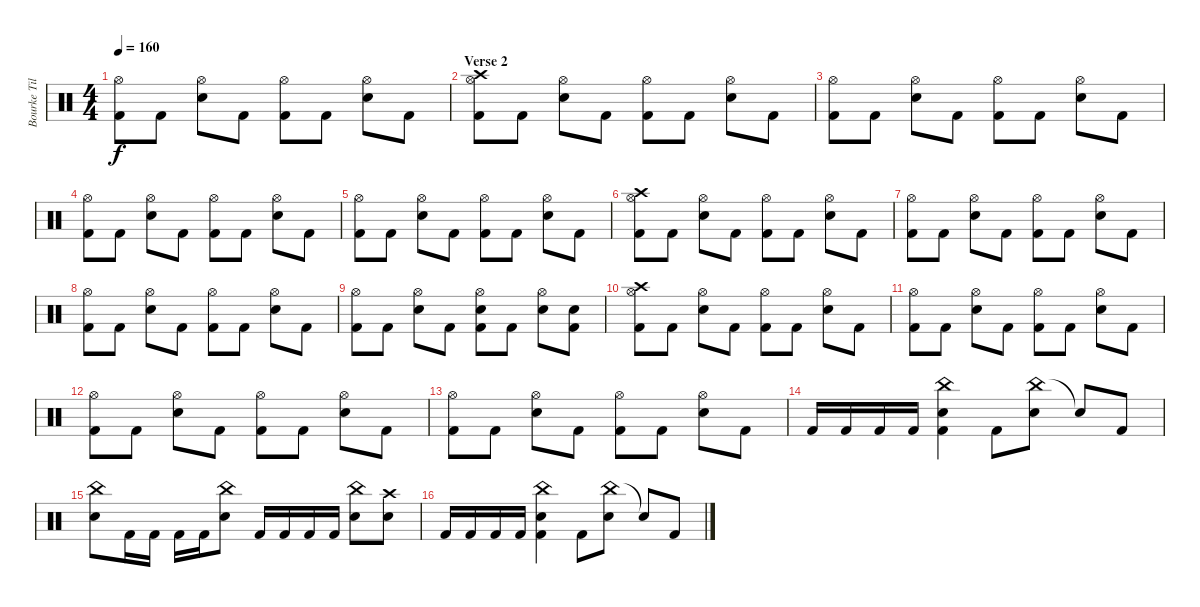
\track ("Bourke Tillman" "Bourke Til") {instrument percussion}
\staff {score}
\articulation defaults
\ts (4 4)
\tempo 160
\clef neutral
\ks c
("Hi-Hat (open)" "Kick (hit) 2").8{dy f} "Kick (hit) 2".8 ("Hi-Hat (open)" "Electric Snare (hit)").8 "Kick (hit) 2".8 ("Hi-Hat (open)" "Kick (hit) 2").8 "Kick (hit) 2".8 ("Hi-Hat (open)" "Electric Snare (hit)").8 "Kick (hit) 2".8 |
\section ("" "Verse 2")
("Crash high (hit)" "Hi-Hat (open)" "Kick (hit) 2").8 "Kick (hit) 2".8 ("Hi-Hat (open)" "Electric Snare (hit)").8 "Kick (hit) 2".8 ("Hi-Hat (open)" "Kick (hit) 2").8 "Kick (hit) 2".8 ("Hi-Hat (open)" "Electric Snare (hit)").8 "Kick (hit) 2".8 |
("Hi-Hat (open)" "Kick (hit) 2").8 "Kick (hit) 2".8 ("Hi-Hat (open)" "Electric Snare (hit)").8 "Kick (hit) 2".8 ("Hi-Hat (open)" "Kick (hit) 2").8 "Kick (hit) 2".8 ("Hi-Hat (open)" "Electric Snare (hit)").8 "Kick (hit) 2".8 |
("Hi-Hat (open)" "Kick (hit) 2").8 "Kick (hit) 2".8 ("Hi-Hat (open)" "Electric Snare (hit)").8 "Kick (hit) 2".8 ("Hi-Hat (open)" "Kick (hit) 2").8 "Kick (hit) 2".8 ("Hi-Hat (open)" "Electric Snare (hit)").8 "Kick (hit) 2".8 |
("Hi-Hat (open)" "Kick (hit) 2").8 "Kick (hit) 2".8 ("Hi-Hat (open)" "Electric Snare (hit)").8 "Kick (hit) 2".8 ("Hi-Hat (open)" "Kick (hit) 2").8 "Kick (hit) 2".8 ("Hi-Hat (open)" "Electric Snare (hit)").8 "Kick (hit) 2".8 |
("Crash high (hit)" "Hi-Hat (open)" "Kick (hit) 2").8 "Kick (hit) 2".8 ("Hi-Hat (open)" "Electric Snare (hit)").8 "Kick (hit) 2".8 ("Hi-Hat (open)" "Kick (hit) 2").8 "Kick (hit) 2".8 ("Hi-Hat (open)" "Electric Snare (hit)").8 "Kick (hit) 2".8 |
("Hi-Hat (open)" "Kick (hit) 2").8 "Kick (hit) 2".8 ("Hi-Hat (open)" "Electric Snare (hit)").8 "Kick (hit) 2".8 ("Hi-Hat (open)" "Kick (hit) 2").8 "Kick (hit) 2".8 ("Hi-Hat (open)" "Electric Snare (hit)").8 "Kick (hit) 2".8 |
("Hi-Hat (open)" "Kick (hit) 2").8 "Kick (hit) 2".8 ("Hi-Hat (open)" "Electric Snare (hit)").8 "Kick (hit) 2".8 ("Hi-Hat (open)" "Kick (hit) 2").8 "Kick (hit) 2".8 ("Hi-Hat (open)" "Electric Snare (hit)").8 "Kick (hit) 2".8 |
("Hi-Hat (open)" "Kick (hit) 2").8 "Kick (hit) 2".8 ("Hi-Hat (open)" "Electric Snare (hit)").8 "Kick (hit) 2".8 ("Hi-Hat (open)" "Electric Snare (hit)" "Kick (hit) 2").8 "Kick (hit) 2".8 ("Hi-Hat (open)" "Electric Snare (hit)").8 ("Electric Snare (hit)" "Kick (hit) 2").8 |
("Crash high (hit)" "Hi-Hat (open)" "Kick (hit) 2").8 "Kick (hit) 2".8 ("Hi-Hat (open)" "Electric Snare (hit)").8 "Kick (hit) 2".8 ("Hi-Hat (open)" "Kick (hit) 2").8 "Kick (hit) 2".8 ("Hi-Hat (open)" "Electric Snare (hit)").8 "Kick (hit) 2".8 |
("Hi-Hat (open)" "Kick (hit) 2").8 "Kick (hit) 2".8 ("Hi-Hat (open)" "Electric Snare (hit)").8 "Kick (hit) 2".8 ("Hi-Hat (open)" "Kick (hit) 2").8 "Kick (hit) 2".8 ("Hi-Hat (open)" "Electric Snare (hit)").8 "Kick (hit) 2".8 |
("Hi-Hat (open)" "Kick (hit) 2").8 "Kick (hit) 2".8 ("Hi-Hat (open)" "Electric Snare (hit)").8 "Kick (hit) 2".8 ("Hi-Hat (open)" "Kick (hit) 2").8 "Kick (hit) 2".8 ("Hi-Hat (open)" "Electric Snare (hit)").8 "Kick (hit) 2".8 |
("Hi-Hat (open)" "Kick (hit) 2").8 "Kick (hit) 2".8 ("Hi-Hat (open)" "Electric Snare (hit)").8 "Kick (hit) 2".8 ("Hi-Hat (open)" "Kick (hit) 2").8 "Kick (hit) 2".8 ("Hi-Hat (open)" "Electric Snare (hit)").8 "Kick (hit) 2".8 |
"Kick (hit) 2".16 "Kick (hit) 2".16 "Kick (hit) 2".16 "Kick (hit) 2".16 ("China (hit)" "Electric Snare (hit)" "Kick (hit) 2").4 "Kick (hit) 2".8 ("China (hit)" "Electric Snare (hit)").8 "Electric Snare (hit)"{t}.8 "Kick (hit) 2".8 |
("China (hit)" "Electric Snare (hit)").8 "Kick (hit) 2".16 "Kick (hit) 2".16 "Kick (hit) 2".16 "Kick (hit) 2".16 ("China (hit)" "Electric Snare (hit)").8 "Kick (hit) 2".16 "Kick (hit) 2".16 "Kick (hit) 2".16 "Kick (hit) 2".16 ("China (hit)" "Electric Snare (hit)").8 ("Crash high (hit)" "Electric Snare (hit)").8 |
"Kick (hit) 2".16 "Kick (hit) 2".16 "Kick (hit) 2".16 "Kick (hit) 2".16 ("China (hit)" "Electric Snare (hit)" "Kick (hit) 2").4 "Kick (hit) 2".8 ("China (hit)" "Electric Snare (hit)").8 "Electric Snare (hit)"{t}.8 "Kick (hit) 2".8
